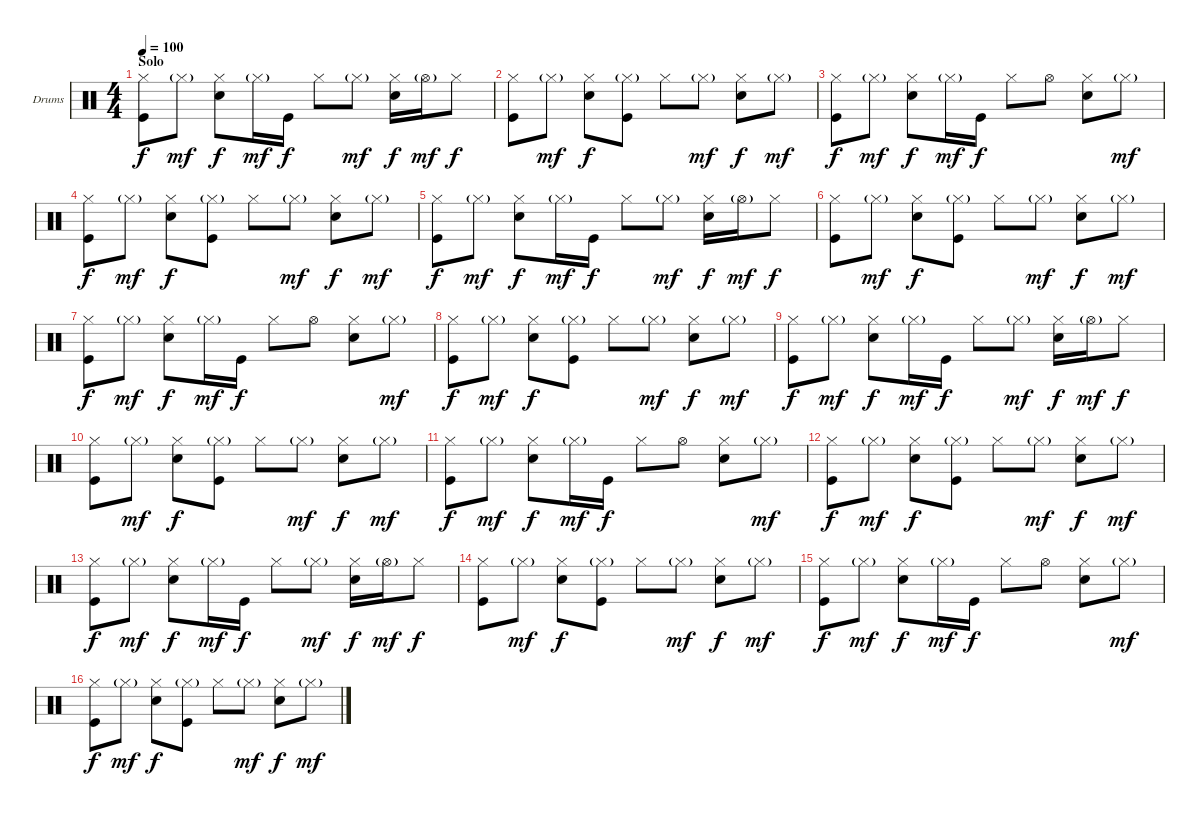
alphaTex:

\bracketExtendMode groupsimilarinstruments
\firstSystemTrackNameOrientation horizontal
\otherSystemsTrackNameOrientation horizontal
\track ("Drumkit" "Drums") {instrument percussion}
\staff {score}
\articulation defaults
\ts (4 4)
\section ("" "Solo")
\tempo 100
\clef neutral
\ks c
("Hi-Hat (closed)" "Kick (hit)").8{dy f} "Hi-Hat (closed)"{g}.8{dy mf} ("Hi-Hat (closed)" "Snare (hit) 2").8{dy f} "Hi-Hat (closed)"{g}.16{dy mf} "Kick (hit)".16{dy f} "Hi-Hat (closed)".8 "Hi-Hat (closed)"{g}.8{dy mf} ("Hi-Hat (closed)" "Snare (hit) 2").16{dy f} "Hi-Hat (open)"{g}.16{dy mf} "Hi-Hat (closed)".8{dy f} |
("Hi-Hat (closed)" "Kick (hit)").8 "Hi-Hat (closed)"{g}.8{dy mf} ("Hi-Hat (closed)" "Snare (hit) 2").8{dy f} ("Hi-Hat (closed)"{g} "Kick (hit)").8 "Hi-Hat (closed)".8 "Hi-Hat (closed)"{g}.8{dy mf} ("Hi-Hat (closed)" "Snare (hit) 2").8{dy f} "Hi-Hat (closed)"{g}.8{dy mf} |
("Hi-Hat (closed)" "Kick (hit)").8{dy f} "Hi-Hat (closed)"{g}.8{dy mf} ("Hi-Hat (closed)" "Snare (hit) 2").8{dy f} "Hi-Hat (closed)"{g}.16{dy mf} "Kick (hit)".16{dy f} "Hi-Hat (closed)".8 "Hi-Hat (open)".8 ("Hi-Hat (closed)" "Snare (hit) 2").8 "Hi-Hat (closed)"{g}.8{dy mf} |
("Hi-Hat (closed)" "Kick (hit)").8{dy f} "Hi-Hat (closed)"{g}.8{dy mf} ("Hi-Hat (closed)" "Snare (hit) 2").8{dy f} ("Hi-Hat (closed)"{g} "Kick (hit)").8 "Hi-Hat (closed)".8 "Hi-Hat (closed)"{g}.8{dy mf} ("Hi-Hat (closed)" "Snare (hit) 2").8{dy f} "Hi-Hat (closed)"{g}.8{dy mf} |
("Hi-Hat (closed)" "Kick (hit)").8{dy f} "Hi-Hat (closed)"{g}.8{dy mf} ("Hi-Hat (closed)" "Snare (hit) 2").8{dy f} "Hi-Hat (closed)"{g}.16{dy mf} "Kick (hit)".16{dy f} "Hi-Hat (closed)".8 "Hi-Hat (closed)"{g}.8{dy mf} ("Hi-Hat (closed)" "Snare (hit) 2").16{dy f} "Hi-Hat (open)"{g}.16{dy mf} "Hi-Hat (closed)".8{dy f} |
("Hi-Hat (closed)" "Kick (hit)").8 "Hi-Hat (closed)"{g}.8{dy mf} ("Hi-Hat (closed)" "Snare (hit) 2").8{dy f} ("Hi-Hat (closed)"{g} "Kick (hit)").8 "Hi-Hat (closed)".8 "Hi-Hat (closed)"{g}.8{dy mf} ("Hi-Hat (closed)" "Snare (hit) 2").8{dy f} "Hi-Hat (closed)"{g}.8{dy mf} |
("Hi-Hat (closed)" "Kick (hit)").8{dy f} "Hi-Hat (closed)"{g}.8{dy mf} ("Hi-Hat (closed)" "Snare (hit) 2").8{dy f} "Hi-Hat (closed)"{g}.16{dy mf} "Kick (hit)".16{dy f} "Hi-Hat (closed)".8 "Hi-Hat (open)".8 ("Hi-Hat (closed)" "Snare (hit) 2").8 "Hi-Hat (closed)"{g}.8{dy mf} |
("Hi-Hat (closed)" "Kick (hit)").8{dy f} "Hi-Hat (closed)"{g}.8{dy mf} ("Hi-Hat (closed)" "Snare (hit) 2").8{dy f} ("Hi-Hat (closed)"{g} "Kick (hit)").8 "Hi-Hat (closed)".8 "Hi-Hat (closed)"{g}.8{dy mf} ("Hi-Hat (closed)" "Snare (hit) 2").8{dy f} "Hi-Hat (closed)"{g}.8{dy mf} |
("Hi-Hat (closed)" "Kick (hit)").8{dy f} "Hi-Hat (closed)"{g}.8{dy mf} ("Hi-Hat (closed)" "Snare (hit) 2").8{dy f} "Hi-Hat (closed)"{g}.16{dy mf} "Kick (hit)".16{dy f} "Hi-Hat (closed)".8 "Hi-Hat (closed)"{g}.8{dy mf} ("Hi-Hat (closed)" "Snare (hit) 2").16{dy f} "Hi-Hat (open)"{g}.16{dy mf} "Hi-Hat (closed)".8{dy f} |
("Hi-Hat (closed)" "Kick (hit)").8 "Hi-Hat (closed)"{g}.8{dy mf} ("Hi-Hat (closed)" "Snare (hit) 2").8{dy f} ("Hi-Hat (closed)"{g} "Kick (hit)").8 "Hi-Hat (closed)".8 "Hi-Hat (closed)"{g}.8{dy mf} ("Hi-Hat (closed)" "Snare (hit) 2").8{dy f} "Hi-Hat (closed)"{g}.8{dy mf} |
("Hi-Hat (closed)" "Kick (hit)").8{dy f} "Hi-Hat (closed)"{g}.8{dy mf} ("Hi-Hat (closed)" "Snare (hit) 2").8{dy f} "Hi-Hat (closed)"{g}.16{dy mf} "Kick (hit)".16{dy f} "Hi-Hat (closed)".8 "Hi-Hat (open)".8 ("Hi-Hat (closed)" "Snare (hit) 2").8 "Hi-Hat (closed)"{g}.8{dy mf} |
("Hi-Hat (closed)" "Kick (hit)").8{dy f} "Hi-Hat (closed)"{g}.8{dy mf} ("Hi-Hat (closed)" "Snare (hit) 2").8{dy f} ("Hi-Hat (closed)"{g} "Kick (hit)").8 "Hi-Hat (closed)".8 "Hi-Hat (closed)"{g}.8{dy mf} ("Hi-Hat (closed)" "Snare (hit) 2").8{dy f} "Hi-Hat (closed)"{g}.8{dy mf} |
("Hi-Hat (closed)" "Kick (hit)").8{dy f} "Hi-Hat (closed)"{g}.8{dy mf} ("Hi-Hat (closed)" "Snare (hit) 2").8{dy f} "Hi-Hat (closed)"{g}.16{dy mf} "Kick (hit)".16{dy f} "Hi-Hat (closed)".8 "Hi-Hat (closed)"{g}.8{dy mf} ("Hi-Hat (closed)" "Snare (hit) 2").16{dy f} "Hi-Hat (open)"{g}.16{dy mf} "Hi-Hat (closed)".8{dy f} |
("Hi-Hat (closed)" "Kick (hit)").8 "Hi-Hat (closed)"{g}.8{dy mf} ("Hi-Hat (closed)" "Snare (hit) 2").8{dy f} ("Hi-Hat (closed)"{g} "Kick (hit)").8 "Hi-Hat (closed)".8 "Hi-Hat (closed)"{g}.8{dy mf} ("Hi-Hat (closed)" "Snare (hit) 2").8{dy f} "Hi-Hat (closed)"{g}.8{dy mf} |
("Hi-Hat (closed)" "Kick (hit)").8{dy f} "Hi-Hat (closed)"{g}.8{dy mf} ("Hi-Hat (closed)" "Snare (hit) 2").8{dy f} "Hi-Hat (closed)"{g}.16{dy mf} "Kick (hit)".16{dy f} "Hi-Hat (closed)".8 "Hi-Hat (open)".8 ("Hi-Hat (closed)" "Snare (hit) 2").8 "Hi-Hat (closed)"{g}.8{dy mf} |
("Hi-Hat (closed)" "Kick (hit)").8{dy f} "Hi-Hat (closed)"{g}.8{dy mf} ("Hi-Hat (closed)" "Snare (hit) 2").8{dy f} ("Hi-Hat (closed)"{g} "Kick (hit)").8 "Hi-Hat (closed)".8 "Hi-Hat (closed)"{g}.8{dy mf} ("Hi-Hat (closed)" "Snare (hit) 2").8{dy f} "Hi-Hat (closed)"{g}.8{dy mf}
